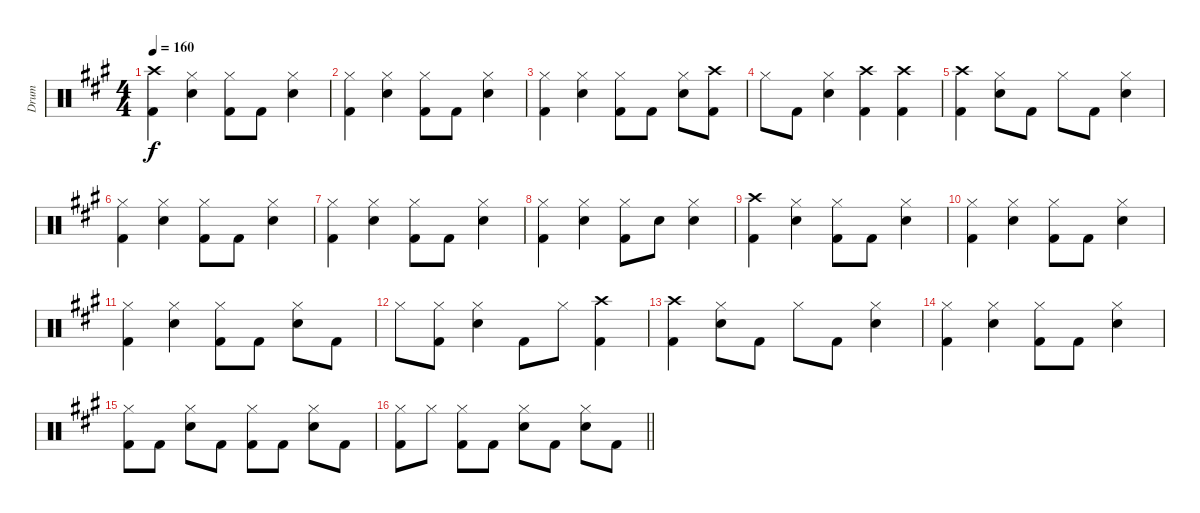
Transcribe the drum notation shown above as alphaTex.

\track ("Drum" "Drum") {instrument percussion}
\staff {score}
\articulation defaults
\ts (4 4)
\tempo 160
\clef neutral
\ks a
("Kick (hit) 2" "Crash high (hit)").4{dy f} ("Hi-Hat (closed)" "Snare (hit) 2").4 ("Hi-Hat (closed)" "Kick (hit) 2").8 "Kick (hit) 2".8 ("Hi-Hat (closed)" "Snare (hit) 2").4 |
("Hi-Hat (closed)" "Kick (hit) 2").4 ("Hi-Hat (closed)" "Snare (hit) 2").4 ("Hi-Hat (closed)" "Kick (hit) 2").8 "Kick (hit) 2".8 ("Hi-Hat (closed)" "Snare (hit) 2").4 |
("Hi-Hat (closed)" "Kick (hit) 2").4 ("Hi-Hat (closed)" "Snare (hit) 2").4 ("Hi-Hat (closed)" "Kick (hit) 2").8 "Kick (hit) 2".8 ("Hi-Hat (closed)" "Snare (hit) 2").8 ("Kick (hit) 2" "Crash high (hit)").8 |
"Hi-Hat (closed)".8 "Kick (hit) 2".8 ("Hi-Hat (closed)" "Snare (hit) 2").4 ("Kick (hit) 2" "Crash high (hit)").4 ("Kick (hit) 2" "Crash high (hit)").4 |
("Kick (hit) 2" "Crash high (hit)").4 ("Hi-Hat (closed)" "Snare (hit) 2").8 "Kick (hit) 2".8 "Hi-Hat (closed)".8 "Kick (hit) 2".8 ("Hi-Hat (closed)" "Snare (hit) 2").4 |
("Hi-Hat (closed)" "Kick (hit) 2").4 ("Hi-Hat (closed)" "Snare (hit) 2").4 ("Hi-Hat (closed)" "Kick (hit) 2").8 "Kick (hit) 2".8 ("Hi-Hat (closed)" "Snare (hit) 2").4 |
("Hi-Hat (closed)" "Kick (hit) 2").4 ("Hi-Hat (closed)" "Snare (hit) 2").4 ("Hi-Hat (closed)" "Kick (hit) 2").8 "Kick (hit) 2".8 ("Hi-Hat (closed)" "Snare (hit) 2").4 |
("Hi-Hat (closed)" "Kick (hit) 2").4 ("Hi-Hat (closed)" "Snare (hit) 2").4 ("Hi-Hat (closed)" "Kick (hit) 2").8 "Snare (hit) 2".8 ("Hi-Hat (closed)" "Snare (hit) 2").4 |
("Kick (hit) 2" "Crash high (hit)").4 ("Hi-Hat (closed)" "Snare (hit) 2").4 ("Hi-Hat (closed)" "Kick (hit) 2").8 "Kick (hit) 2".8 ("Hi-Hat (closed)" "Snare (hit) 2").4 |
("Hi-Hat (closed)" "Kick (hit) 2").4 ("Hi-Hat (closed)" "Snare (hit) 2").4 ("Hi-Hat (closed)" "Kick (hit) 2").8 "Kick (hit) 2".8 ("Hi-Hat (closed)" "Snare (hit) 2").4 |
("Hi-Hat (closed)" "Kick (hit) 2").4 ("Hi-Hat (closed)" "Snare (hit) 2").4 ("Hi-Hat (closed)" "Kick (hit) 2").8 "Kick (hit) 2".8 ("Hi-Hat (closed)" "Snare (hit) 2").8 "Kick (hit) 2".8 |
"Hi-Hat (closed)".8 ("Hi-Hat (closed)" "Kick (hit) 2").8 ("Hi-Hat (closed)" "Snare (hit) 2").4 "Kick (hit) 2".8 "Hi-Hat (closed)".8 ("Kick (hit) 2" "Crash high (hit)").4 |
("Kick (hit) 2" "Crash high (hit)").4 ("Hi-Hat (closed)" "Snare (hit) 2").8 "Kick (hit) 2".8 "Hi-Hat (closed)".8 "Kick (hit) 2".8 ("Hi-Hat (closed)" "Snare (hit) 2").4 |
("Hi-Hat (closed)" "Kick (hit) 2").4 ("Hi-Hat (closed)" "Snare (hit) 2").4 ("Hi-Hat (closed)" "Kick (hit) 2").8 "Kick (hit) 2".8 ("Hi-Hat (closed)" "Snare (hit) 2").4 |
("Hi-Hat (closed)" "Kick (hit) 2").8 "Kick (hit) 2".8 ("Hi-Hat (closed)" "Snare (hit) 2").8 "Kick (hit) 2".8 ("Hi-Hat (closed)" "Kick (hit) 2").8 "Kick (hit) 2".8 ("Hi-Hat (closed)" "Snare (hit) 2").8 "Kick (hit) 2".8 |
\barLineRight lightlight
("Hi-Hat (closed)" "Kick (hit) 2").8 "Hi-Hat (closed)".8 ("Hi-Hat (closed)" "Kick (hit) 2").8 "Kick (hit) 2".8 ("Hi-Hat (closed)" "Snare (hit) 2").8 "Kick (hit) 2".8 ("Hi-Hat (closed)" "Snare (hit) 2").8 "Kick (hit) 2".8
